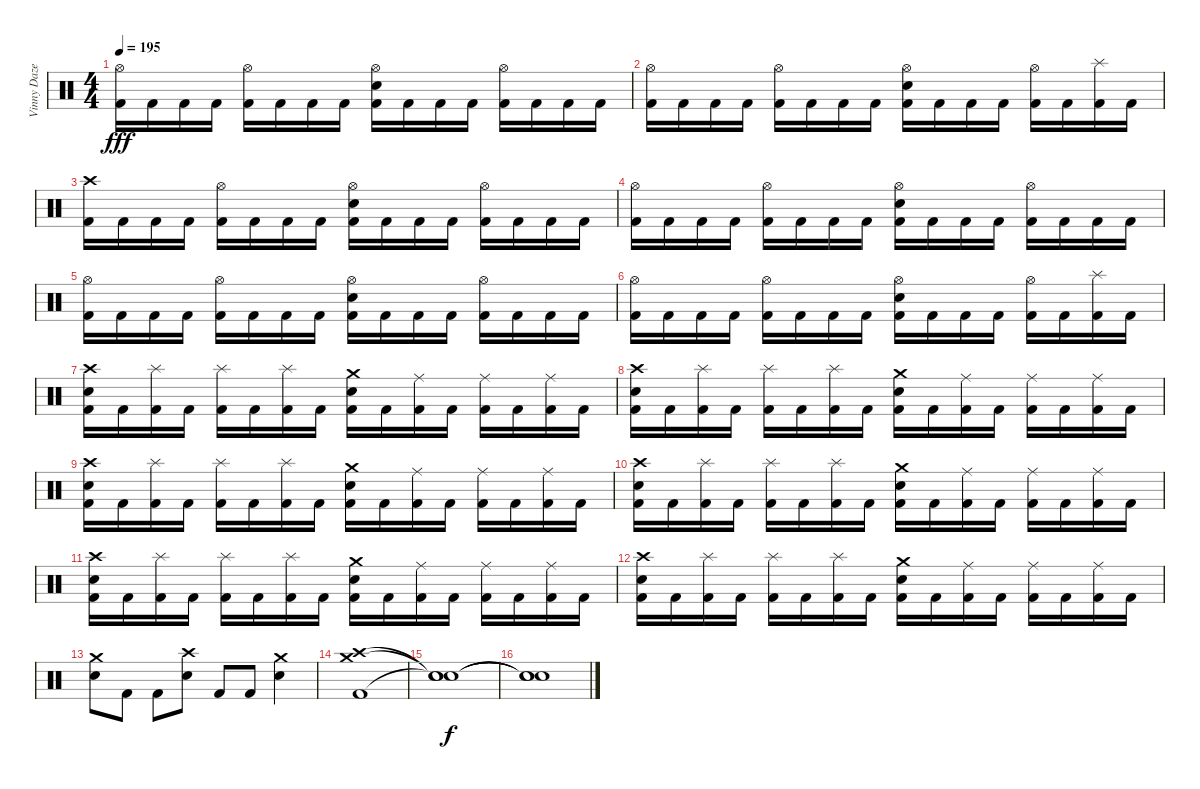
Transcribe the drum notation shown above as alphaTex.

\track ("Vinny Daze (R.I.P.)" "Vinny Daze") {instrument percussion}
\staff {score}
\articulation defaults
\ts (4 4)
\tempo 195
\clef neutral
\ks c
("Hi-Hat (open)" "Kick (hit) 2").16{dy fff} "Kick (hit) 2".16 "Kick (hit) 2".16 "Kick (hit) 2".16 ("Hi-Hat (open)" "Kick (hit) 2").16 "Kick (hit) 2".16 "Kick (hit) 2".16 "Kick (hit) 2".16 ("Hi-Hat (open)" "Electric Snare (hit)" "Kick (hit) 2").16 "Kick (hit) 2".16 "Kick (hit) 2".16 "Kick (hit) 2".16 ("Hi-Hat (open)" "Kick (hit) 2").16 "Kick (hit) 2".16 "Kick (hit) 2".16 "Kick (hit) 2".16 |
("Hi-Hat (open)" "Kick (hit) 2").16 "Kick (hit) 2".16 "Kick (hit) 2".16 "Kick (hit) 2".16 ("Hi-Hat (open)" "Kick (hit) 2").16 "Kick (hit) 2".16 "Kick (hit) 2".16 "Kick (hit) 2".16 ("Hi-Hat (open)" "Electric Snare (hit)" "Kick (hit) 2").16 "Kick (hit) 2".16 "Kick (hit) 2".16 "Kick (hit) 2".16 ("Hi-Hat (open)" "Kick (hit) 2").16 "Kick (hit) 2".16 ("Splash (hit)" "Kick (hit) 2").16 "Kick (hit) 2".16 |
("Crash high (hit)" "Kick (hit) 2").16 "Kick (hit) 2".16 "Kick (hit) 2".16 "Kick (hit) 2".16 ("Hi-Hat (open)" "Kick (hit) 2").16 "Kick (hit) 2".16 "Kick (hit) 2".16 "Kick (hit) 2".16 ("Hi-Hat (open)" "Electric Snare (hit)" "Kick (hit) 2").16 "Kick (hit) 2".16 "Kick (hit) 2".16 "Kick (hit) 2".16 ("Hi-Hat (open)" "Kick (hit) 2").16 "Kick (hit) 2".16 "Kick (hit) 2".16 "Kick (hit) 2".16 |
("Hi-Hat (open)" "Kick (hit) 2").16 "Kick (hit) 2".16 "Kick (hit) 2".16 "Kick (hit) 2".16 ("Hi-Hat (open)" "Kick (hit) 2").16 "Kick (hit) 2".16 "Kick (hit) 2".16 "Kick (hit) 2".16 ("Hi-Hat (open)" "Electric Snare (hit)" "Kick (hit) 2").16 "Kick (hit) 2".16 "Kick (hit) 2".16 "Kick (hit) 2".16 ("Hi-Hat (open)" "Kick (hit) 2").16 "Kick (hit) 2".16 "Kick (hit) 2".16 "Kick (hit) 2".16 |
("Hi-Hat (open)" "Kick (hit) 2").16 "Kick (hit) 2".16 "Kick (hit) 2".16 "Kick (hit) 2".16 ("Hi-Hat (open)" "Kick (hit) 2").16 "Kick (hit) 2".16 "Kick (hit) 2".16 "Kick (hit) 2".16 ("Hi-Hat (open)" "Electric Snare (hit)" "Kick (hit) 2").16 "Kick (hit) 2".16 "Kick (hit) 2".16 "Kick (hit) 2".16 ("Hi-Hat (open)" "Kick (hit) 2").16 "Kick (hit) 2".16 "Kick (hit) 2".16 "Kick (hit) 2".16 |
("Hi-Hat (open)" "Kick (hit) 2").16 "Kick (hit) 2".16 "Kick (hit) 2".16 "Kick (hit) 2".16 ("Hi-Hat (open)" "Kick (hit) 2").16 "Kick (hit) 2".16 "Kick (hit) 2".16 "Kick (hit) 2".16 ("Hi-Hat (open)" "Electric Snare (hit)" "Kick (hit) 2").16 "Kick (hit) 2".16 "Kick (hit) 2".16 "Kick (hit) 2".16 ("Hi-Hat (open)" "Kick (hit) 2").16 "Kick (hit) 2".16 ("Splash (hit)" "Kick (hit) 2").16 "Kick (hit) 2".16 |
("Crash high (hit)" "Electric Snare (hit)" "Kick (hit) 2").16 "Kick (hit) 2".16 ("Splash (hit)" "Kick (hit) 2").16 "Kick (hit) 2".16 ("Splash (hit)" "Kick (hit) 2").16 "Kick (hit) 2".16 ("Splash (hit)" "Kick (hit) 2").16 "Kick (hit) 2".16 ("Crash medium (hit)" "Electric Snare (hit)" "Kick (hit) 2").16 "Kick (hit) 2".16 ("Ride (middle)" "Kick (hit) 2").16 "Kick (hit) 2".16 ("Ride (middle)" "Kick (hit) 2").16 "Kick (hit) 2".16 ("Ride (middle)" "Kick (hit) 2").16 "Kick (hit) 2".16 |
("Crash high (hit)" "Electric Snare (hit)" "Kick (hit) 2").16 "Kick (hit) 2".16 ("Splash (hit)" "Kick (hit) 2").16 "Kick (hit) 2".16 ("Splash (hit)" "Kick (hit) 2").16 "Kick (hit) 2".16 ("Splash (hit)" "Kick (hit) 2").16 "Kick (hit) 2".16 ("Crash medium (hit)" "Electric Snare (hit)" "Kick (hit) 2").16 "Kick (hit) 2".16 ("Ride (middle)" "Kick (hit) 2").16 "Kick (hit) 2".16 ("Ride (middle)" "Kick (hit) 2").16 "Kick (hit) 2".16 ("Ride (middle)" "Kick (hit) 2").16 "Kick (hit) 2".16 |
("Crash high (hit)" "Electric Snare (hit)" "Kick (hit) 2").16 "Kick (hit) 2".16 ("Splash (hit)" "Kick (hit) 2").16 "Kick (hit) 2".16 ("Splash (hit)" "Kick (hit) 2").16 "Kick (hit) 2".16 ("Splash (hit)" "Kick (hit) 2").16 "Kick (hit) 2".16 ("Crash medium (hit)" "Electric Snare (hit)" "Kick (hit) 2").16 "Kick (hit) 2".16 ("Ride (middle)" "Kick (hit) 2").16 "Kick (hit) 2".16 ("Ride (middle)" "Kick (hit) 2").16 "Kick (hit) 2".16 ("Ride (middle)" "Kick (hit) 2").16 "Kick (hit) 2".16 |
("Crash high (hit)" "Electric Snare (hit)" "Kick (hit) 2").16 "Kick (hit) 2".16 ("Splash (hit)" "Kick (hit) 2").16 "Kick (hit) 2".16 ("Splash (hit)" "Kick (hit) 2").16 "Kick (hit) 2".16 ("Splash (hit)" "Kick (hit) 2").16 "Kick (hit) 2".16 ("Crash medium (hit)" "Electric Snare (hit)" "Kick (hit) 2").16 "Kick (hit) 2".16 ("Ride (middle)" "Kick (hit) 2").16 "Kick (hit) 2".16 ("Ride (middle)" "Kick (hit) 2").16 "Kick (hit) 2".16 ("Ride (middle)" "Kick (hit) 2").16 "Kick (hit) 2".16 |
("Crash high (hit)" "Electric Snare (hit)" "Kick (hit) 2").16 "Kick (hit) 2".16 ("Splash (hit)" "Kick (hit) 2").16 "Kick (hit) 2".16 ("Splash (hit)" "Kick (hit) 2").16 "Kick (hit) 2".16 ("Splash (hit)" "Kick (hit) 2").16 "Kick (hit) 2".16 ("Crash medium (hit)" "Electric Snare (hit)" "Kick (hit) 2").16 "Kick (hit) 2".16 ("Ride (middle)" "Kick (hit) 2").16 "Kick (hit) 2".16 ("Ride (middle)" "Kick (hit) 2").16 "Kick (hit) 2".16 ("Ride (middle)" "Kick (hit) 2").16 "Kick (hit) 2".16 |
("Crash high (hit)" "Electric Snare (hit)" "Kick (hit) 2").16 "Kick (hit) 2".16 ("Splash (hit)" "Kick (hit) 2").16 "Kick (hit) 2".16 ("Splash (hit)" "Kick (hit) 2").16 "Kick (hit) 2".16 ("Splash (hit)" "Kick (hit) 2").16 "Kick (hit) 2".16 ("Crash medium (hit)" "Electric Snare (hit)" "Kick (hit) 2").16 "Kick (hit) 2".16 ("Ride (middle)" "Kick (hit) 2").16 "Kick (hit) 2".16 ("Ride (middle)" "Kick (hit) 2").16 "Kick (hit) 2".16 ("Ride (middle)" "Kick (hit) 2").16 "Kick (hit) 2".16 |
("Crash medium (hit)" "Electric Snare (hit)").8 "Kick (hit) 2".8 "Kick (hit) 2".8 ("Crash high (hit)" "Electric Snare (hit)").8 "Kick (hit) 2".8 "Kick (hit) 2".8 ("Crash medium (hit)" "Electric Snare (hit)").4 |
("Crash medium (hit)" "Crash high (hit)" "Kick (hit) 2").1 |
("Snare (hit)"{t} "Snare (hit)"{t} "Snare (hit)"{t}).1{dy f} |
("Snare (hit)"{t} "Snare (hit)"{t} "Snare (hit)"{t}).1
